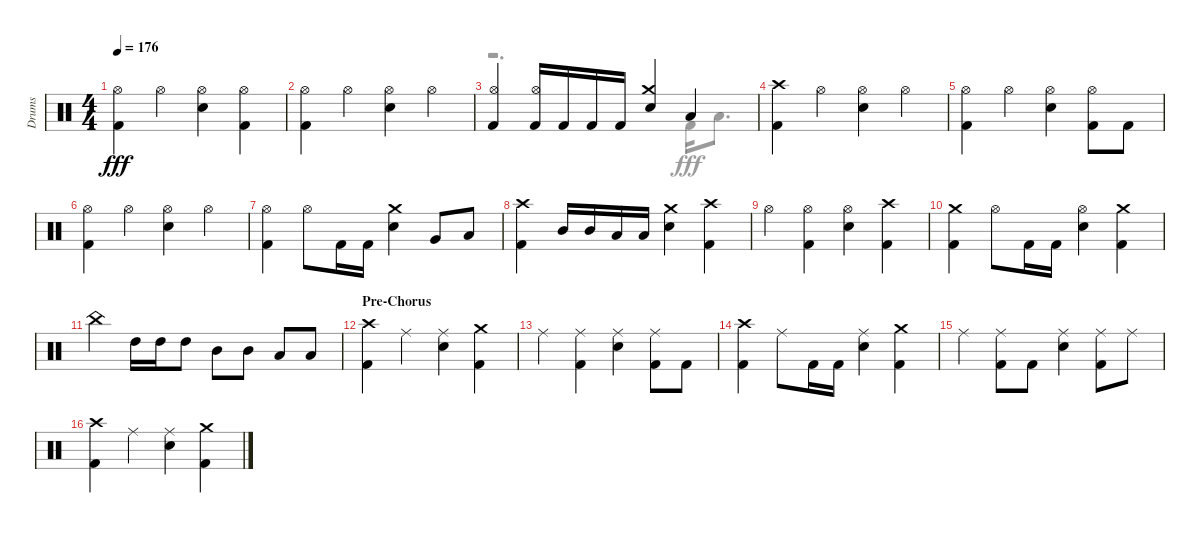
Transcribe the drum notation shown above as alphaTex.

\track ("Drums" "Drums") {instrument percussion}
\staff {score}
\articulation defaults
\voice
\ts (4 4)
\tempo 176
\clef neutral
\ks aminor
("Kick (hit) 2" "Hi-Hat (open)").4{dy fff} "Hi-Hat (open)".4 ("Hi-Hat (open)" "Snare (hit) 2").4 ("Hi-Hat (open)" "Kick (hit) 2").4 |
("Hi-Hat (open)" "Kick (hit) 2").4 "Hi-Hat (open)".4 ("Snare (hit) 2" "Hi-Hat (open)").4 "Hi-Hat (open)".4 |
("Hi-Hat (open)" "Kick (hit) 2").4 ("Hi-Hat (open)" "Kick (hit) 2").16 "Kick (hit) 2".16 "Kick (hit) 2".16 "Kick (hit) 2".16 ("Crash medium (hit)" "Snare (hit) 2").4 "Low Floor Tom (hit)".4 |
("Kick (hit) 2" "Crash high (hit)").4 "Hi-Hat (open)".4 ("Hi-Hat (open)" "Snare (hit) 2").4 "Hi-Hat (open)".4 |
("Hi-Hat (open)" "Kick (hit) 2").4 "Hi-Hat (open)".4 ("Hi-Hat (open)" "Snare (hit) 2").4 ("Kick (hit) 2" "Hi-Hat (open)").8 "Kick (hit) 2".8 |
("Kick (hit) 2" "Hi-Hat (open)").4 "Hi-Hat (open)".4 ("Snare (hit) 2" "Hi-Hat (open)").4 "Hi-Hat (open)".4 |
("Kick (hit) 2" "Hi-Hat (open)").4 "Hi-Hat (open)".8 "Kick (hit) 2".16 "Kick (hit) 2".16 ("Snare (hit) 2" "Crash medium (hit)").4 "Very Low Tom (hit)".8 "Low Floor Tom (hit)".8 |
("Crash high (hit)" "Kick (hit) 2").4 "Mid Tom (hit)".16 "Mid Tom (hit)".16 "Low Tom (hit)".16 "Low Tom (hit)".16 ("Snare (hit) 2" "Crash medium (hit)").4 ("Crash high (hit)" "Kick (hit) 2").4 |
"Hi-Hat (open)".4 ("Hi-Hat (open)" "Kick (hit) 2").4 ("Snare (hit) 2" "Hi-Hat (open)").4 ("Crash high (hit)" "Kick (hit) 2").4 |
("Kick (hit) 2" "Crash medium (hit)").4 "Hi-Hat (open)".8 "Kick (hit) 2".16 "Kick (hit) 2".16 ("Hi-Hat (open)" "Snare (hit) 2").4 ("Crash medium (hit)" "Kick (hit) 2").4 |
"China (hit)".4 "High Tom (hit)".16 "High Tom (hit)".16 "High Tom (hit)".8 "Mid Tom (hit)".8 "Mid Tom (hit)".8 "Low Tom (hit)".8 "Low Tom (hit)".8 |
\section ("" "Pre-Chorus")
("Kick (hit) 2" "Crash high (hit)").4 "Ride (middle)".4 ("Ride (middle)" "Snare (hit) 2").4 ("Crash medium (hit)" "Kick (hit) 2").4 |
"Ride (middle)".4 ("Kick (hit) 2" "Ride (middle)").4 ("Snare (hit) 2" "Ride (middle)").4 ("Kick (hit) 2" "Ride (middle)").8 "Kick (hit) 2".8 |
("Kick (hit) 2" "Crash high (hit)").4 "Ride (middle)".8 "Kick (hit) 2".16 "Kick (hit) 2".16 ("Snare (hit) 2" "Ride (middle)").4 ("Crash medium (hit)" "Kick (hit) 2").4 |
"Ride (middle)".4 ("Kick (hit) 2" "Ride (middle)").8 "Kick (hit) 2".8 ("Snare (hit) 2" "Ride (middle)").4 ("Kick (hit) 2" "Ride (middle)").8 "Ride (middle)".8 |
("Kick (hit) 2" "Crash high (hit)").4 "Ride (middle)".4 ("Snare (hit) 2" "Ride (middle)").4 ("Crash medium (hit)" "Kick (hit) 2").4
\voice
\clef neutral
\ottava regular
\simile none
\ks aminor
|
|
r.2{d} "Kick (hit) 2".16 "Low Floor Tom (hit)".8{d} |
|
|
|
|
|
|
|
|
|
|
|
|
